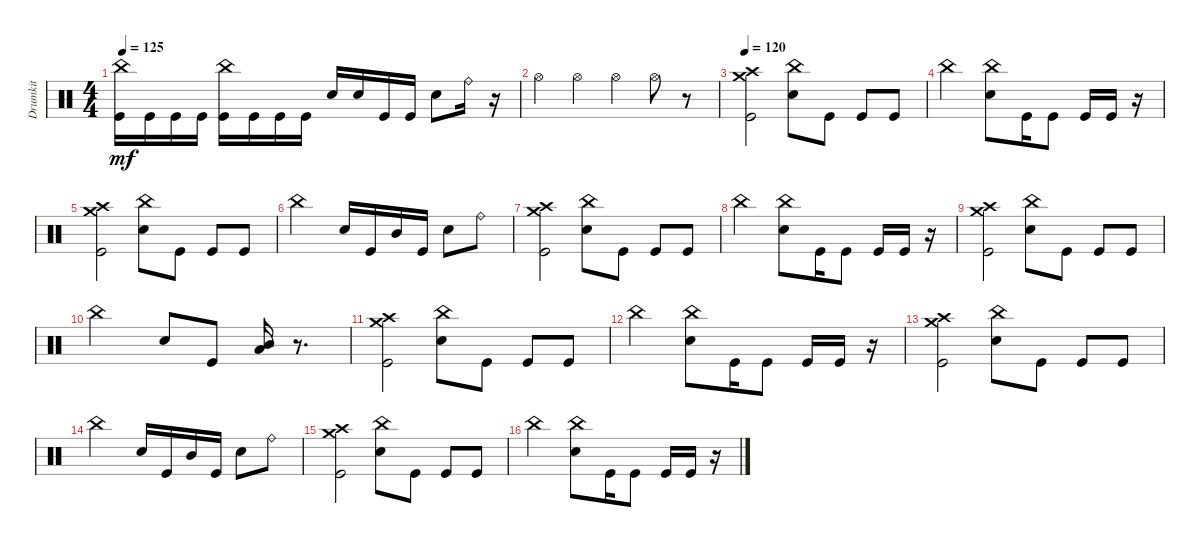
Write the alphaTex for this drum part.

\track ("Drumkit" "Drumkit") {instrument percussion}
\staff {score}
\articulation defaults
\ts (4 4)
\tempo 125
\clef neutral
\ks c
("Kick (hit)" "China (hit)").16{dy mf} "Kick (hit)".16 "Kick (hit)".16 "Kick (hit)".16 ("Kick (hit)" "China (hit)").16 "Kick (hit)".16 "Kick (hit)".16 "Kick (hit)".16 "Snare (hit) 2".16 "Snare (hit) 2".16 "Kick (hit)".16 "Kick (hit)".16 "Snare (hit) 2".8 "Ride (bell)".16 r.16 |
"Hi-Hat (open)".4 "Hi-Hat (open)".4 "Hi-Hat (open)".4 "Hi-Hat (open)".8 r.8 |
\tempo 120
("Kick (hit)" "Crash high (hit)" "Crash medium (hit)").2 ("Snare (hit) 2" "China (hit)").8 "Kick (hit)".8 "Kick (hit)".8 "Kick (hit)".8 |
"China (hit)".2 ("Snare (hit) 2" "China (hit)").8 "Kick (hit)".16 "Kick (hit)".8 "Kick (hit)".16 "Kick (hit)".16 r.16 |
("Kick (hit)" "Crash high (hit)" "Crash medium (hit)").2 ("Snare (hit) 2" "China (hit)").8 "Kick (hit)".8 "Kick (hit)".8 "Kick (hit)".8 |
"China (hit)".2 "Snare (hit) 2".16 "Kick (hit)".16 "Mid Tom (hit)".16 "Kick (hit)".16 "Snare (hit) 2".8 "Ride (bell)".8 |
("Kick (hit)" "Crash high (hit)" "Crash medium (hit)").2 ("Snare (hit) 2" "China (hit)").8 "Kick (hit)".8 "Kick (hit)".8 "Kick (hit)".8 |
"China (hit)".2 ("Snare (hit) 2" "China (hit)").8 "Kick (hit)".16 "Kick (hit)".8 "Kick (hit)".16 "Kick (hit)".16 r.16 |
("Kick (hit)" "Crash high (hit)" "Crash medium (hit)").2 ("Snare (hit) 2" "China (hit)").8 "Kick (hit)".8 "Kick (hit)".8 "Kick (hit)".8 |
"China (hit)".2 "Snare (hit) 2".8 "Kick (hit)".8 ("Low Floor Tom (hit)" "Mid Tom (hit)").16 r.8{d} |
("Kick (hit)" "Crash high (hit)" "Crash medium (hit)").2 ("Snare (hit) 2" "China (hit)").8 "Kick (hit)".8 "Kick (hit)".8 "Kick (hit)".8 |
"China (hit)".2 ("Snare (hit) 2" "China (hit)").8 "Kick (hit)".16 "Kick (hit)".8 "Kick (hit)".16 "Kick (hit)".16 r.16 |
("Kick (hit)" "Crash high (hit)" "Crash medium (hit)").2 ("Snare (hit) 2" "China (hit)").8 "Kick (hit)".8 "Kick (hit)".8 "Kick (hit)".8 |
"China (hit)".2 "Snare (hit) 2".16 "Kick (hit)".16 "Mid Tom (hit)".16 "Kick (hit)".16 "Snare (hit) 2".8 "Ride (bell)".8 |
("Kick (hit)" "Crash high (hit)" "Crash medium (hit)").2 ("Snare (hit) 2" "China (hit)").8 "Kick (hit)".8 "Kick (hit)".8 "Kick (hit)".8 |
"China (hit)".2 ("Snare (hit) 2" "China (hit)").8 "Kick (hit)".16 "Kick (hit)".8 "Kick (hit)".16 "Kick (hit)".16 r.16
